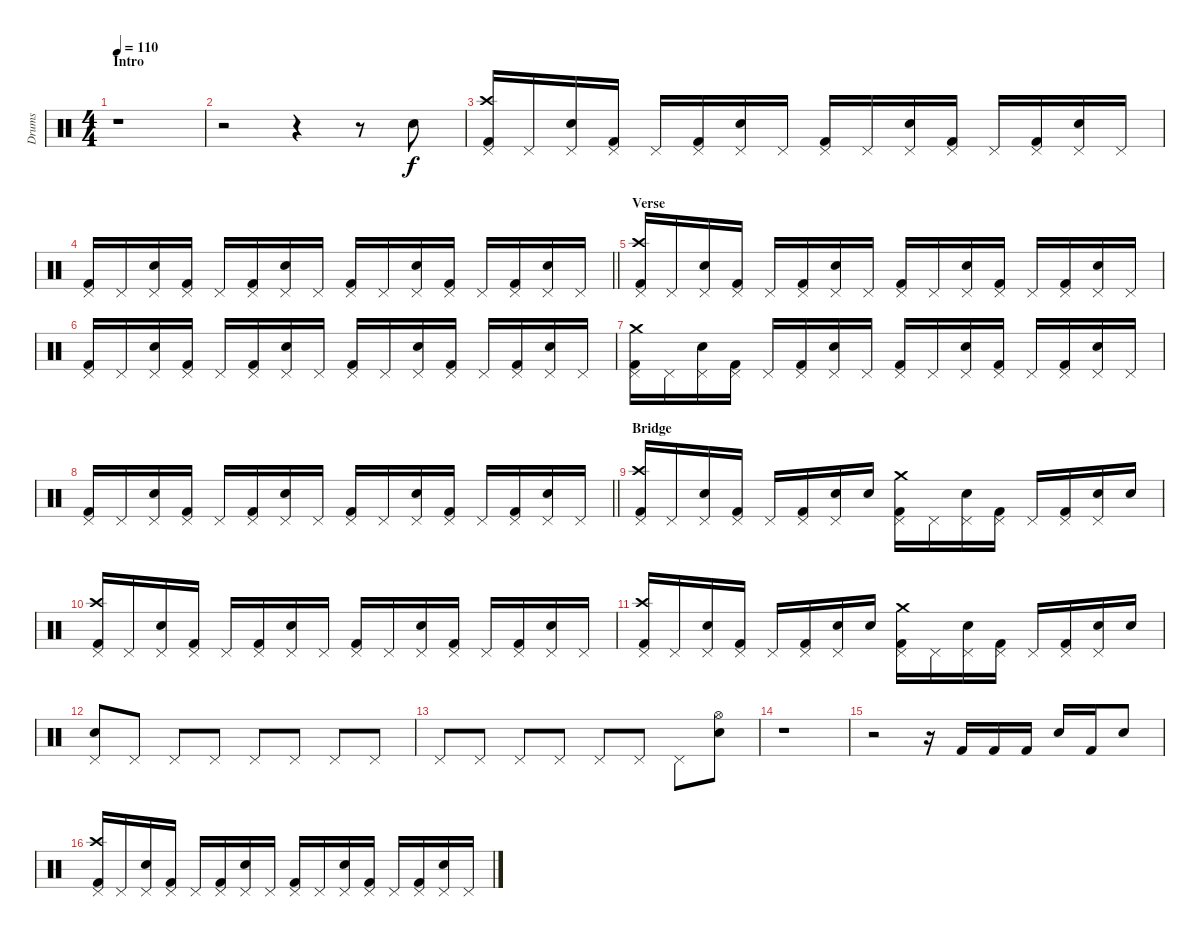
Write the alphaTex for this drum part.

\track ("Drums" "Drums") {instrument percussion}
\staff {score}
\articulation defaults
\ts (4 4)
\section ("" "Intro")
\tempo 110
\clef neutral
\ks c
r.1{dy f} |
r.2 r.4 r.8 "Snare (hit) 2".8 |
("Kick (hit) 2" "Crash high (hit)" "Pedal Hi-Hat (hit)").16 "Pedal Hi-Hat (hit)".16 ("Snare (hit) 2" "Pedal Hi-Hat (hit)").16 ("Kick (hit) 2" "Pedal Hi-Hat (hit)").16 "Pedal Hi-Hat (hit)".16 ("Kick (hit) 2" "Pedal Hi-Hat (hit)").16 ("Snare (hit) 2" "Pedal Hi-Hat (hit)").16 "Pedal Hi-Hat (hit)".16 ("Kick (hit) 2" "Pedal Hi-Hat (hit)").16 "Pedal Hi-Hat (hit)".16 ("Snare (hit) 2" "Pedal Hi-Hat (hit)").16 ("Kick (hit) 2" "Pedal Hi-Hat (hit)").16 "Pedal Hi-Hat (hit)".16 ("Kick (hit) 2" "Pedal Hi-Hat (hit)").16 ("Snare (hit) 2" "Pedal Hi-Hat (hit)").16 "Pedal Hi-Hat (hit)".16 |
\barLineRight lightlight
("Kick (hit) 2" "Pedal Hi-Hat (hit)").16 "Pedal Hi-Hat (hit)".16 ("Snare (hit) 2" "Pedal Hi-Hat (hit)").16 ("Kick (hit) 2" "Pedal Hi-Hat (hit)").16 "Pedal Hi-Hat (hit)".16 ("Kick (hit) 2" "Pedal Hi-Hat (hit)").16 ("Snare (hit) 2" "Pedal Hi-Hat (hit)").16 "Pedal Hi-Hat (hit)".16 ("Kick (hit) 2" "Pedal Hi-Hat (hit)").16 "Pedal Hi-Hat (hit)".16 ("Snare (hit) 2" "Pedal Hi-Hat (hit)").16 ("Kick (hit) 2" "Pedal Hi-Hat (hit)").16 "Pedal Hi-Hat (hit)".16 ("Kick (hit) 2" "Pedal Hi-Hat (hit)").16 ("Snare (hit) 2" "Pedal Hi-Hat (hit)").16 "Pedal Hi-Hat (hit)".16 |
\section ("" "Verse")
("Kick (hit) 2" "Pedal Hi-Hat (hit)" "Crash high (hit)").16 "Pedal Hi-Hat (hit)".16 ("Snare (hit) 2" "Pedal Hi-Hat (hit)").16 ("Kick (hit) 2" "Pedal Hi-Hat (hit)").16 "Pedal Hi-Hat (hit)".16 ("Kick (hit) 2" "Pedal Hi-Hat (hit)").16 ("Snare (hit) 2" "Pedal Hi-Hat (hit)").16 "Pedal Hi-Hat (hit)".16 ("Kick (hit) 2" "Pedal Hi-Hat (hit)").16 "Pedal Hi-Hat (hit)".16 ("Snare (hit) 2" "Pedal Hi-Hat (hit)").16 ("Kick (hit) 2" "Pedal Hi-Hat (hit)").16 "Pedal Hi-Hat (hit)".16 ("Kick (hit) 2" "Pedal Hi-Hat (hit)").16 ("Snare (hit) 2" "Pedal Hi-Hat (hit)").16 "Pedal Hi-Hat (hit)".16 |
("Kick (hit) 2" "Pedal Hi-Hat (hit)").16 "Pedal Hi-Hat (hit)".16 ("Snare (hit) 2" "Pedal Hi-Hat (hit)").16 ("Kick (hit) 2" "Pedal Hi-Hat (hit)").16 "Pedal Hi-Hat (hit)".16 ("Kick (hit) 2" "Pedal Hi-Hat (hit)").16 ("Snare (hit) 2" "Pedal Hi-Hat (hit)").16 "Pedal Hi-Hat (hit)".16 ("Kick (hit) 2" "Pedal Hi-Hat (hit)").16 "Pedal Hi-Hat (hit)".16 ("Snare (hit) 2" "Pedal Hi-Hat (hit)").16 ("Kick (hit) 2" "Pedal Hi-Hat (hit)").16 "Pedal Hi-Hat (hit)".16 ("Kick (hit) 2" "Pedal Hi-Hat (hit)").16 ("Snare (hit) 2" "Pedal Hi-Hat (hit)").16 "Pedal Hi-Hat (hit)".16 |
("Kick (hit) 2" "Pedal Hi-Hat (hit)" "Crash medium (hit)").16 "Pedal Hi-Hat (hit)".16 ("Snare (hit) 2" "Pedal Hi-Hat (hit)").16 ("Kick (hit) 2" "Pedal Hi-Hat (hit)").16 "Pedal Hi-Hat (hit)".16 ("Kick (hit) 2" "Pedal Hi-Hat (hit)").16 ("Snare (hit) 2" "Pedal Hi-Hat (hit)").16 "Pedal Hi-Hat (hit)".16 ("Kick (hit) 2" "Pedal Hi-Hat (hit)").16 "Pedal Hi-Hat (hit)".16 ("Snare (hit) 2" "Pedal Hi-Hat (hit)").16 ("Kick (hit) 2" "Pedal Hi-Hat (hit)").16 "Pedal Hi-Hat (hit)".16 ("Kick (hit) 2" "Pedal Hi-Hat (hit)").16 ("Snare (hit) 2" "Pedal Hi-Hat (hit)").16 "Pedal Hi-Hat (hit)".16 |
\barLineRight lightlight
("Kick (hit) 2" "Pedal Hi-Hat (hit)").16 "Pedal Hi-Hat (hit)".16 ("Snare (hit) 2" "Pedal Hi-Hat (hit)").16 ("Kick (hit) 2" "Pedal Hi-Hat (hit)").16 "Pedal Hi-Hat (hit)".16 ("Kick (hit) 2" "Pedal Hi-Hat (hit)").16 ("Snare (hit) 2" "Pedal Hi-Hat (hit)").16 "Pedal Hi-Hat (hit)".16 ("Kick (hit) 2" "Pedal Hi-Hat (hit)").16 "Pedal Hi-Hat (hit)".16 ("Snare (hit) 2" "Pedal Hi-Hat (hit)").16 ("Kick (hit) 2" "Pedal Hi-Hat (hit)").16 "Pedal Hi-Hat (hit)".16 ("Kick (hit) 2" "Pedal Hi-Hat (hit)").16 ("Snare (hit) 2" "Pedal Hi-Hat (hit)").16 "Pedal Hi-Hat (hit)".16 |
\section ("" "Bridge")
("Kick (hit) 2" "Pedal Hi-Hat (hit)" "Crash high (hit)").16 "Pedal Hi-Hat (hit)".16 ("Snare (hit) 2" "Pedal Hi-Hat (hit)").16 ("Kick (hit) 2" "Pedal Hi-Hat (hit)").16 "Pedal Hi-Hat (hit)".16 ("Kick (hit) 2" "Pedal Hi-Hat (hit)").16 ("Snare (hit) 2" "Pedal Hi-Hat (hit)").16 "Snare (hit) 2".16 ("Kick (hit) 2" "Pedal Hi-Hat (hit)" "Crash medium (hit)").16 "Pedal Hi-Hat (hit)".16 ("Snare (hit) 2" "Pedal Hi-Hat (hit)").16 ("Kick (hit) 2" "Pedal Hi-Hat (hit)").16 "Pedal Hi-Hat (hit)".16 ("Kick (hit) 2" "Pedal Hi-Hat (hit)").16 ("Snare (hit) 2" "Pedal Hi-Hat (hit)").16 "Snare (hit) 2".16 |
("Kick (hit) 2" "Pedal Hi-Hat (hit)" "Crash high (hit)").16 "Pedal Hi-Hat (hit)".16 ("Snare (hit) 2" "Pedal Hi-Hat (hit)").16 ("Kick (hit) 2" "Pedal Hi-Hat (hit)").16 "Pedal Hi-Hat (hit)".16 ("Kick (hit) 2" "Pedal Hi-Hat (hit)").16 ("Snare (hit) 2" "Pedal Hi-Hat (hit)").16 "Pedal Hi-Hat (hit)".16 ("Kick (hit) 2" "Pedal Hi-Hat (hit)").16 "Pedal Hi-Hat (hit)".16 ("Snare (hit) 2" "Pedal Hi-Hat (hit)").16 ("Kick (hit) 2" "Pedal Hi-Hat (hit)").16 "Pedal Hi-Hat (hit)".16 ("Kick (hit) 2" "Pedal Hi-Hat (hit)").16 ("Snare (hit) 2" "Pedal Hi-Hat (hit)").16 "Pedal Hi-Hat (hit)".16 |
("Kick (hit) 2" "Pedal Hi-Hat (hit)" "Crash high (hit)").16 "Pedal Hi-Hat (hit)".16 ("Snare (hit) 2" "Pedal Hi-Hat (hit)").16 ("Kick (hit) 2" "Pedal Hi-Hat (hit)").16 "Pedal Hi-Hat (hit)".16 ("Kick (hit) 2" "Pedal Hi-Hat (hit)").16 ("Snare (hit) 2" "Pedal Hi-Hat (hit)").16 "Snare (hit) 2".16 ("Kick (hit) 2" "Pedal Hi-Hat (hit)" "Crash medium (hit)").16 "Pedal Hi-Hat (hit)".16 ("Snare (hit) 2" "Pedal Hi-Hat (hit)").16 ("Kick (hit) 2" "Pedal Hi-Hat (hit)").16 "Pedal Hi-Hat (hit)".16 ("Kick (hit) 2" "Pedal Hi-Hat (hit)").16 ("Snare (hit) 2" "Pedal Hi-Hat (hit)").16 "Snare (hit) 2".16 |
("Snare (hit) 2" "Pedal Hi-Hat (hit)").8 "Pedal Hi-Hat (hit)".8 "Pedal Hi-Hat (hit)".8 "Pedal Hi-Hat (hit)".8 "Pedal Hi-Hat (hit)".8 "Pedal Hi-Hat (hit)".8 "Pedal Hi-Hat (hit)".8 "Pedal Hi-Hat (hit)".8 |
"Pedal Hi-Hat (hit)".8 "Pedal Hi-Hat (hit)".8 "Pedal Hi-Hat (hit)".8 "Pedal Hi-Hat (hit)".8 "Pedal Hi-Hat (hit)".8 "Pedal Hi-Hat (hit)".8 "Pedal Hi-Hat (hit)".8 ("Hi-Hat (open)" "Snare (hit) 2").8 |
r.1 |
r.2 r.16 "Kick (hit) 2".16 "Kick (hit) 2".16 "Kick (hit) 2".16 "Snare (hit) 2".16 "Kick (hit) 2".16 "Snare (hit) 2".8 |
("Kick (hit) 2" "Pedal Hi-Hat (hit)" "Crash high (hit)").16 "Pedal Hi-Hat (hit)".16 ("Snare (hit) 2" "Pedal Hi-Hat (hit)").16 ("Kick (hit) 2" "Pedal Hi-Hat (hit)").16 "Pedal Hi-Hat (hit)".16 ("Kick (hit) 2" "Pedal Hi-Hat (hit)").16 ("Snare (hit) 2" "Pedal Hi-Hat (hit)").16 "Pedal Hi-Hat (hit)".16 ("Kick (hit) 2" "Pedal Hi-Hat (hit)").16 "Pedal Hi-Hat (hit)".16 ("Snare (hit) 2" "Pedal Hi-Hat (hit)").16 ("Kick (hit) 2" "Pedal Hi-Hat (hit)").16 "Pedal Hi-Hat (hit)".16 ("Kick (hit) 2" "Pedal Hi-Hat (hit)").16 ("Snare (hit) 2" "Pedal Hi-Hat (hit)").16 "Pedal Hi-Hat (hit)".16
